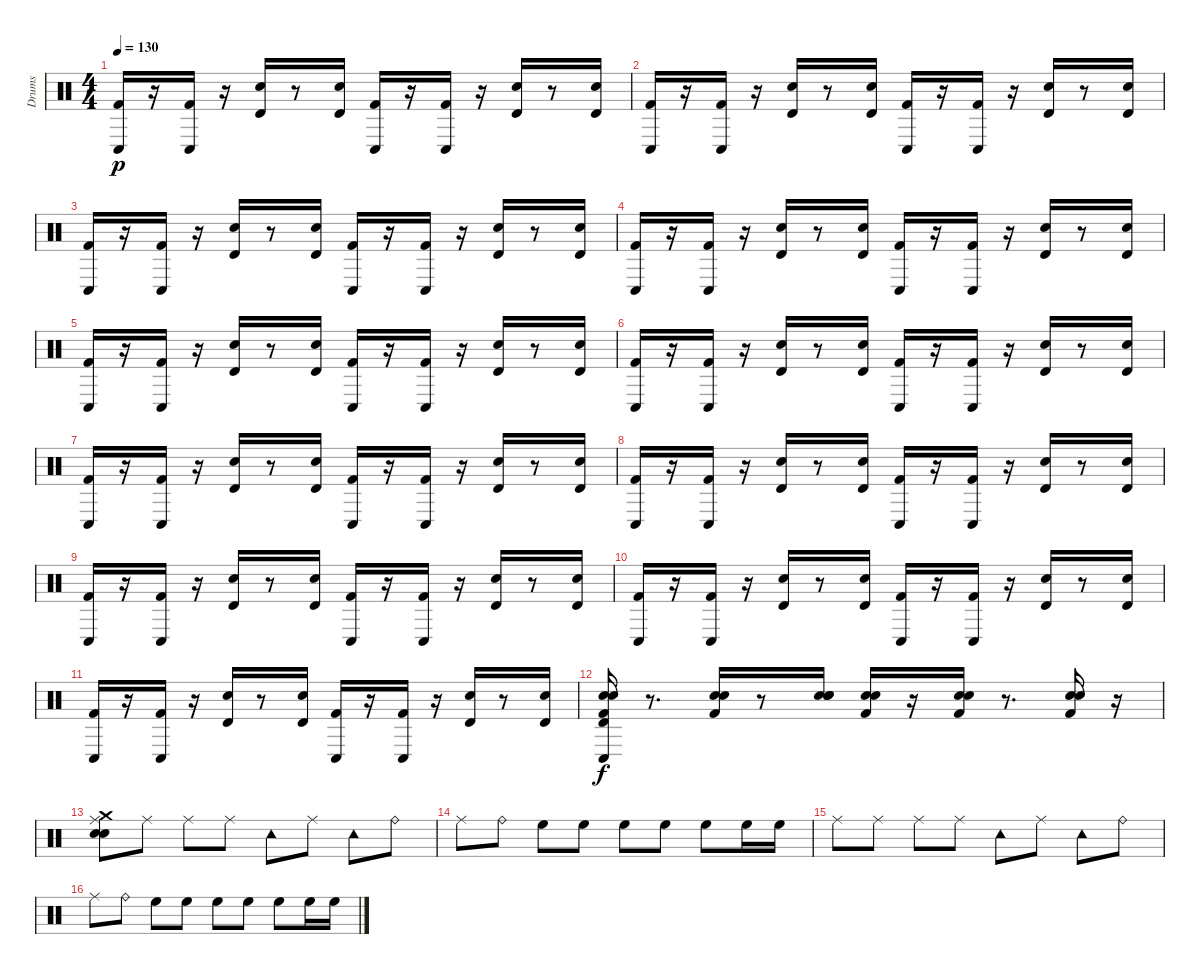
\track ("Drums" "Drums") {instrument percussion}
\staff {score}
\articulation defaults
\ts (4 4)
\tempo 130
\clef neutral
\ks c
("Kick (hit) 2" "Conga low (hit)").16{dy p} r.16 ("Kick (hit) 2" "Conga low (hit)").16 r.16 ("Snare (hit) 2" "Timbale high (hit)").16 r.8 ("Snare (hit) 2" "Timbale high (hit)").16 ("Kick (hit) 2" "Conga low (hit)").16 r.16 ("Kick (hit) 2" "Conga low (hit)").16 r.16 ("Snare (hit) 2" "Timbale high (hit)").16 r.8 ("Snare (hit) 2" "Timbale high (hit)").16 |
("Kick (hit) 2" "Conga low (hit)").16 r.16 ("Kick (hit) 2" "Conga low (hit)").16 r.16 ("Snare (hit) 2" "Timbale high (hit)").16 r.8 ("Snare (hit) 2" "Timbale high (hit)").16 ("Kick (hit) 2" "Conga low (hit)").16 r.16 ("Kick (hit) 2" "Conga low (hit)").16 r.16 ("Snare (hit) 2" "Timbale high (hit)").16 r.8 ("Snare (hit) 2" "Timbale high (hit)").16 |
("Kick (hit) 2" "Conga low (hit)").16 r.16 ("Kick (hit) 2" "Conga low (hit)").16 r.16 ("Snare (hit) 2" "Timbale high (hit)").16 r.8 ("Snare (hit) 2" "Timbale high (hit)").16 ("Kick (hit) 2" "Conga low (hit)").16 r.16 ("Kick (hit) 2" "Conga low (hit)").16 r.16 ("Snare (hit) 2" "Timbale high (hit)").16 r.8 ("Snare (hit) 2" "Timbale high (hit)").16 |
("Kick (hit) 2" "Conga low (hit)").16 r.16 ("Kick (hit) 2" "Conga low (hit)").16 r.16 ("Snare (hit) 2" "Timbale high (hit)").16 r.8 ("Snare (hit) 2" "Timbale high (hit)").16 ("Kick (hit) 2" "Conga low (hit)").16 r.16 ("Kick (hit) 2" "Conga low (hit)").16 r.16 ("Snare (hit) 2" "Timbale high (hit)").16 r.8 ("Snare (hit) 2" "Timbale high (hit)").16 |
("Kick (hit) 2" "Conga low (hit)").16 r.16 ("Kick (hit) 2" "Conga low (hit)").16 r.16 ("Snare (hit) 2" "Timbale high (hit)").16 r.8 ("Snare (hit) 2" "Timbale high (hit)").16 ("Kick (hit) 2" "Conga low (hit)").16 r.16 ("Kick (hit) 2" "Conga low (hit)").16 r.16 ("Snare (hit) 2" "Timbale high (hit)").16 r.8 ("Snare (hit) 2" "Timbale high (hit)").16 |
("Kick (hit) 2" "Conga low (hit)").16 r.16 ("Kick (hit) 2" "Conga low (hit)").16 r.16 ("Snare (hit) 2" "Timbale high (hit)").16 r.8 ("Snare (hit) 2" "Timbale high (hit)").16 ("Kick (hit) 2" "Conga low (hit)").16 r.16 ("Kick (hit) 2" "Conga low (hit)").16 r.16 ("Snare (hit) 2" "Timbale high (hit)").16 r.8 ("Snare (hit) 2" "Timbale high (hit)").16 |
("Kick (hit) 2" "Conga low (hit)").16 r.16 ("Kick (hit) 2" "Conga low (hit)").16 r.16 ("Snare (hit) 2" "Timbale high (hit)").16 r.8 ("Snare (hit) 2" "Timbale high (hit)").16 ("Kick (hit) 2" "Conga low (hit)").16 r.16 ("Kick (hit) 2" "Conga low (hit)").16 r.16 ("Snare (hit) 2" "Timbale high (hit)").16 r.8 ("Snare (hit) 2" "Timbale high (hit)").16 |
("Kick (hit) 2" "Conga low (hit)").16 r.16 ("Kick (hit) 2" "Conga low (hit)").16 r.16 ("Snare (hit) 2" "Timbale high (hit)").16 r.8 ("Snare (hit) 2" "Timbale high (hit)").16 ("Kick (hit) 2" "Conga low (hit)").16 r.16 ("Kick (hit) 2" "Conga low (hit)").16 r.16 ("Snare (hit) 2" "Timbale high (hit)").16 r.8 ("Snare (hit) 2" "Timbale high (hit)").16 |
("Kick (hit) 2" "Conga low (hit)").16 r.16 ("Kick (hit) 2" "Conga low (hit)").16 r.16 ("Snare (hit) 2" "Timbale high (hit)").16 r.8 ("Snare (hit) 2" "Timbale high (hit)").16 ("Kick (hit) 2" "Conga low (hit)").16 r.16 ("Kick (hit) 2" "Conga low (hit)").16 r.16 ("Snare (hit) 2" "Timbale high (hit)").16 r.8 ("Snare (hit) 2" "Timbale high (hit)").16 |
("Kick (hit) 2" "Conga low (hit)").16 r.16 ("Kick (hit) 2" "Conga low (hit)").16 r.16 ("Snare (hit) 2" "Timbale high (hit)").16 r.8 ("Snare (hit) 2" "Timbale high (hit)").16 ("Kick (hit) 2" "Conga low (hit)").16 r.16 ("Kick (hit) 2" "Conga low (hit)").16 r.16 ("Snare (hit) 2" "Timbale high (hit)").16 r.8 ("Snare (hit) 2" "Timbale high (hit)").16 |
("Kick (hit) 2" "Conga low (hit)").16 r.16 ("Kick (hit) 2" "Conga low (hit)").16 r.16 ("Snare (hit) 2" "Timbale high (hit)").16 r.8 ("Snare (hit) 2" "Timbale high (hit)").16 ("Kick (hit) 2" "Conga low (hit)").16 r.16 ("Kick (hit) 2" "Conga low (hit)").16 r.16 ("Snare (hit) 2" "Timbale high (hit)").16 r.8 ("Snare (hit) 2" "Timbale high (hit)").16 |
("Timbale high (hit)" "Conga low (hit)" "Electric Snare (hit)" "Snare (hit) 2" "Kick (hit) 2").16{dy f} r.8{d} ("Electric Snare (hit)" "Snare (hit) 2" "Kick (hit) 2").16 r.8 ("Snare (hit) 2" "Electric Snare (hit)" "Electric Snare (hit)" "Snare (hit) 2").16 ("Electric Snare (hit)" "Snare (hit) 2" "Kick (hit) 2").16 r.16 ("Electric Snare (hit)" "Snare (hit) 2" "Kick (hit) 2").16 r.8{d} ("Snare (hit) 2" "Electric Snare (hit)" "Kick (hit) 2").16 r.16 |
("Ride (middle)" "Electric Snare (hit)" "Snare (hit) 2" "Crash medium (hit)").8 "Ride (middle)".8 "Ride (middle)".8 "Ride (middle)".8 "Tambourine (hit)".8 "Ride (middle)".8 "Tambourine (hit)".8 "Ride (bell)".8 |
"Ride (middle)".8 "Ride (bell)".8 "High Floor Tom (hit)".8 "High Floor Tom (hit)".8 "High Floor Tom (hit)".8 "High Floor Tom (hit)".8 "High Floor Tom (hit)".8 "High Floor Tom (hit)".16 "High Floor Tom (hit)".16 |
"Ride (middle)".8 "Ride (middle)".8 "Ride (middle)".8 "Ride (middle)".8 "Tambourine (hit)".8 "Ride (middle)".8 "Tambourine (hit)".8 "Ride (bell)".8 |
"Ride (middle)".8 "Ride (bell)".8 "High Floor Tom (hit)".8 "High Floor Tom (hit)".8 "High Floor Tom (hit)".8 "High Floor Tom (hit)".8 "High Floor Tom (hit)".8 "High Floor Tom (hit)".16 "High Floor Tom (hit)".16
